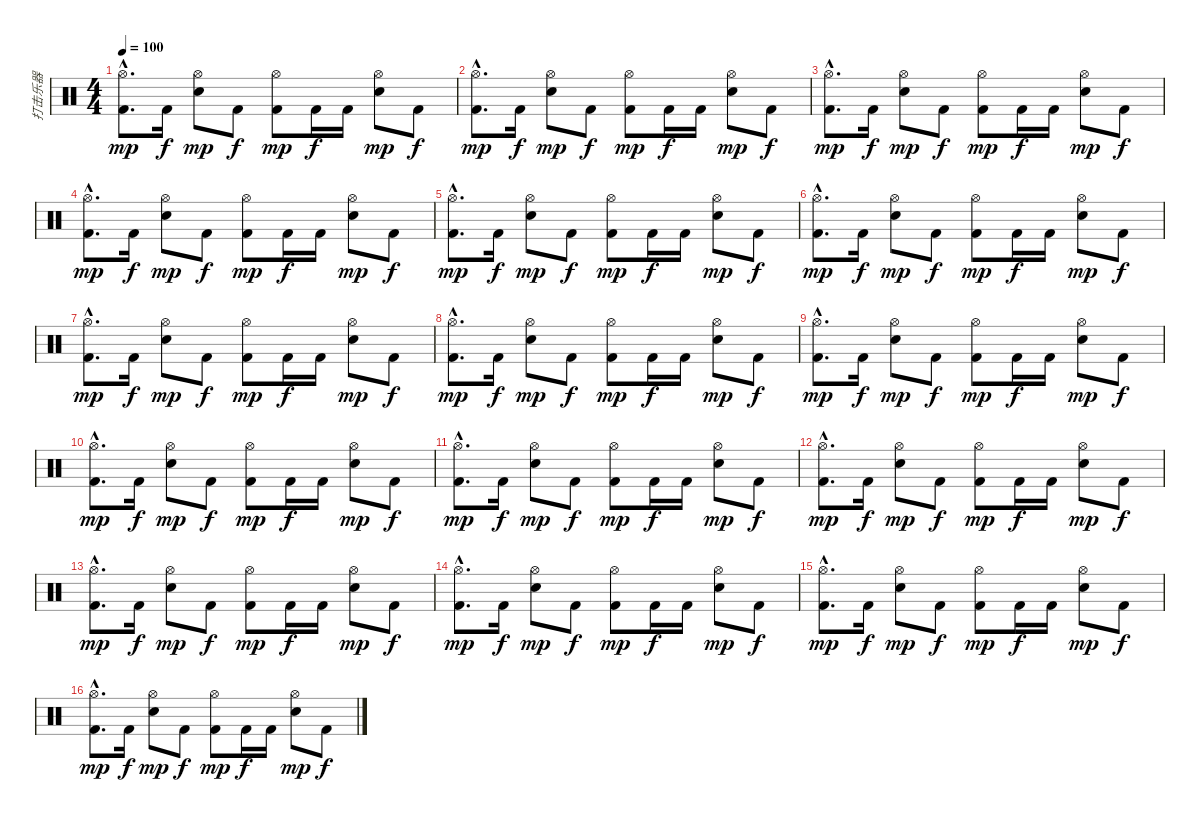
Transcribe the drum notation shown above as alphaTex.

\track ("打击乐器" "打击乐器") {instrument percussion}
\staff {score}
\articulation defaults
\ts (4 4)
\tempo 100
\clef neutral
\ks c
("Kick (hit) 2"{hac} "Hi-Hat (open)"{hac}).8{d dy mp} "Kick (hit) 2".16{dy f} ("Electric Snare (hit)" "Hi-Hat (open)").8{dy mp} "Kick (hit) 2".8{dy f} ("Kick (hit) 2" "Hi-Hat (open)").8{dy mp} "Kick (hit) 2".16{dy f} "Kick (hit) 2".16 ("Electric Snare (hit)" "Hi-Hat (open)").8{dy mp} "Kick (hit) 2".8{dy f} |
("Kick (hit) 2"{hac} "Hi-Hat (open)"{hac}).8{d dy mp} "Kick (hit) 2".16{dy f} ("Electric Snare (hit)" "Hi-Hat (open)").8{dy mp} "Kick (hit) 2".8{dy f} ("Kick (hit) 2" "Hi-Hat (open)").8{dy mp} "Kick (hit) 2".16{dy f} "Kick (hit) 2".16 ("Electric Snare (hit)" "Hi-Hat (open)").8{dy mp} "Kick (hit) 2".8{dy f} |
("Kick (hit) 2"{hac} "Hi-Hat (open)"{hac}).8{d dy mp} "Kick (hit) 2".16{dy f} ("Electric Snare (hit)" "Hi-Hat (open)").8{dy mp} "Kick (hit) 2".8{dy f} ("Kick (hit) 2" "Hi-Hat (open)").8{dy mp} "Kick (hit) 2".16{dy f} "Kick (hit) 2".16 ("Electric Snare (hit)" "Hi-Hat (open)").8{dy mp} "Kick (hit) 2".8{dy f} |
("Kick (hit) 2"{hac} "Hi-Hat (open)"{hac}).8{d dy mp} "Kick (hit) 2".16{dy f} ("Electric Snare (hit)" "Hi-Hat (open)").8{dy mp} "Kick (hit) 2".8{dy f} ("Kick (hit) 2" "Hi-Hat (open)").8{dy mp} "Kick (hit) 2".16{dy f} "Kick (hit) 2".16 ("Electric Snare (hit)" "Hi-Hat (open)").8{dy mp} "Kick (hit) 2".8{dy f} |
("Kick (hit) 2"{hac} "Hi-Hat (open)"{hac}).8{d dy mp} "Kick (hit) 2".16{dy f} ("Electric Snare (hit)" "Hi-Hat (open)").8{dy mp} "Kick (hit) 2".8{dy f} ("Kick (hit) 2" "Hi-Hat (open)").8{dy mp} "Kick (hit) 2".16{dy f} "Kick (hit) 2".16 ("Electric Snare (hit)" "Hi-Hat (open)").8{dy mp} "Kick (hit) 2".8{dy f} |
("Kick (hit) 2"{hac} "Hi-Hat (open)"{hac}).8{d dy mp} "Kick (hit) 2".16{dy f} ("Electric Snare (hit)" "Hi-Hat (open)").8{dy mp} "Kick (hit) 2".8{dy f} ("Kick (hit) 2" "Hi-Hat (open)").8{dy mp} "Kick (hit) 2".16{dy f} "Kick (hit) 2".16 ("Electric Snare (hit)" "Hi-Hat (open)").8{dy mp} "Kick (hit) 2".8{dy f} |
("Kick (hit) 2"{hac} "Hi-Hat (open)"{hac}).8{d dy mp} "Kick (hit) 2".16{dy f} ("Electric Snare (hit)" "Hi-Hat (open)").8{dy mp} "Kick (hit) 2".8{dy f} ("Kick (hit) 2" "Hi-Hat (open)").8{dy mp} "Kick (hit) 2".16{dy f} "Kick (hit) 2".16 ("Electric Snare (hit)" "Hi-Hat (open)").8{dy mp} "Kick (hit) 2".8{dy f} |
("Kick (hit) 2"{hac} "Hi-Hat (open)"{hac}).8{d dy mp} "Kick (hit) 2".16{dy f} ("Electric Snare (hit)" "Hi-Hat (open)").8{dy mp} "Kick (hit) 2".8{dy f} ("Kick (hit) 2" "Hi-Hat (open)").8{dy mp} "Kick (hit) 2".16{dy f} "Kick (hit) 2".16 ("Electric Snare (hit)" "Hi-Hat (open)").8{dy mp} "Kick (hit) 2".8{dy f} |
("Kick (hit) 2"{hac} "Hi-Hat (open)"{hac}).8{d dy mp} "Kick (hit) 2".16{dy f} ("Electric Snare (hit)" "Hi-Hat (open)").8{dy mp} "Kick (hit) 2".8{dy f} ("Kick (hit) 2" "Hi-Hat (open)").8{dy mp} "Kick (hit) 2".16{dy f} "Kick (hit) 2".16 ("Electric Snare (hit)" "Hi-Hat (open)").8{dy mp} "Kick (hit) 2".8{dy f} |
("Kick (hit) 2"{hac} "Hi-Hat (open)"{hac}).8{d dy mp} "Kick (hit) 2".16{dy f} ("Electric Snare (hit)" "Hi-Hat (open)").8{dy mp} "Kick (hit) 2".8{dy f} ("Kick (hit) 2" "Hi-Hat (open)").8{dy mp} "Kick (hit) 2".16{dy f} "Kick (hit) 2".16 ("Electric Snare (hit)" "Hi-Hat (open)").8{dy mp} "Kick (hit) 2".8{dy f} |
("Kick (hit) 2"{hac} "Hi-Hat (open)"{hac}).8{d dy mp} "Kick (hit) 2".16{dy f} ("Electric Snare (hit)" "Hi-Hat (open)").8{dy mp} "Kick (hit) 2".8{dy f} ("Kick (hit) 2" "Hi-Hat (open)").8{dy mp} "Kick (hit) 2".16{dy f} "Kick (hit) 2".16 ("Electric Snare (hit)" "Hi-Hat (open)").8{dy mp} "Kick (hit) 2".8{dy f} |
("Kick (hit) 2"{hac} "Hi-Hat (open)"{hac}).8{d dy mp} "Kick (hit) 2".16{dy f} ("Electric Snare (hit)" "Hi-Hat (open)").8{dy mp} "Kick (hit) 2".8{dy f} ("Kick (hit) 2" "Hi-Hat (open)").8{dy mp} "Kick (hit) 2".16{dy f} "Kick (hit) 2".16 ("Electric Snare (hit)" "Hi-Hat (open)").8{dy mp} "Kick (hit) 2".8{dy f} |
("Kick (hit) 2"{hac} "Hi-Hat (open)"{hac}).8{d dy mp} "Kick (hit) 2".16{dy f} ("Electric Snare (hit)" "Hi-Hat (open)").8{dy mp} "Kick (hit) 2".8{dy f} ("Kick (hit) 2" "Hi-Hat (open)").8{dy mp} "Kick (hit) 2".16{dy f} "Kick (hit) 2".16 ("Electric Snare (hit)" "Hi-Hat (open)").8{dy mp} "Kick (hit) 2".8{dy f} |
("Kick (hit) 2"{hac} "Hi-Hat (open)"{hac}).8{d dy mp} "Kick (hit) 2".16{dy f} ("Electric Snare (hit)" "Hi-Hat (open)").8{dy mp} "Kick (hit) 2".8{dy f} ("Kick (hit) 2" "Hi-Hat (open)").8{dy mp} "Kick (hit) 2".16{dy f} "Kick (hit) 2".16 ("Electric Snare (hit)" "Hi-Hat (open)").8{dy mp} "Kick (hit) 2".8{dy f} |
("Kick (hit) 2"{hac} "Hi-Hat (open)"{hac}).8{d dy mp} "Kick (hit) 2".16{dy f} ("Electric Snare (hit)" "Hi-Hat (open)").8{dy mp} "Kick (hit) 2".8{dy f} ("Kick (hit) 2" "Hi-Hat (open)").8{dy mp} "Kick (hit) 2".16{dy f} "Kick (hit) 2".16 ("Electric Snare (hit)" "Hi-Hat (open)").8{dy mp} "Kick (hit) 2".8{dy f} |
("Kick (hit) 2"{hac} "Hi-Hat (open)"{hac}).8{d dy mp} "Kick (hit) 2".16{dy f} ("Electric Snare (hit)" "Hi-Hat (open)").8{dy mp} "Kick (hit) 2".8{dy f} ("Kick (hit) 2" "Hi-Hat (open)").8{dy mp} "Kick (hit) 2".16{dy f} "Kick (hit) 2".16 ("Electric Snare (hit)" "Hi-Hat (open)").8{dy mp} "Kick (hit) 2".8{dy f}
